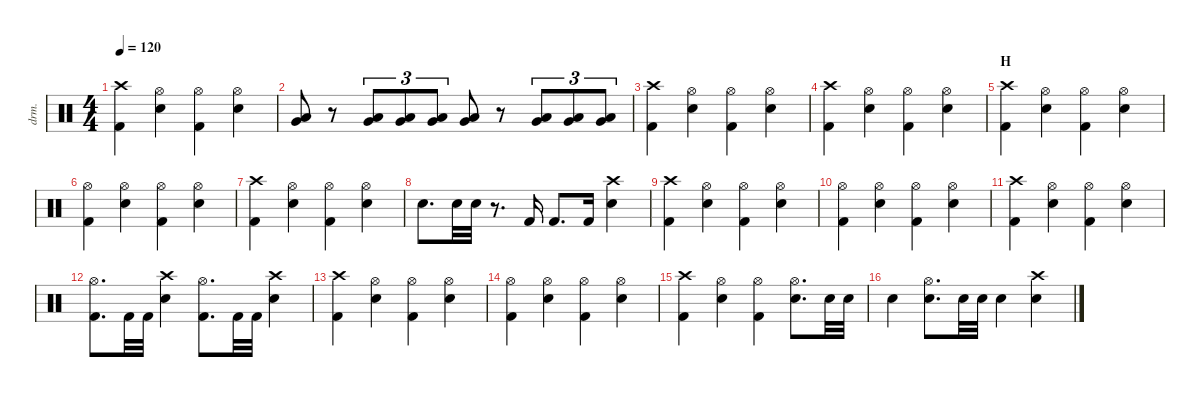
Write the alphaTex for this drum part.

\defaultSystemsLayout 4
\hideDynamics
\bracketExtendMode nobrackets
\track ("Drums" "drm.") {instrument percussion}
\staff {score}
\articulation defaults
\ts (4 4)
\tempo 120
\clef neutral
\ks c
("Crash high (hit)" "Kick (hit) 2").4{dy f} ("Snare (hit) 2" "Hi-Hat (open)").4 ("Hi-Hat (open)" "Kick (hit) 2").4 ("Snare (hit) 2" "Hi-Hat (open)").4 |
("Low Floor Tom (hit)" "Very Low Tom (hit)").8 r.8 ("Low Floor Tom (hit)" "Very Low Tom (hit)").8{tu (3 2)} ("Low Floor Tom (hit)" "Very Low Tom (hit)").8{tu (3 2)} ("Low Floor Tom (hit)" "Very Low Tom (hit)").8{tu (3 2)} ("Low Floor Tom (hit)" "Very Low Tom (hit)").8 r.8 ("Low Floor Tom (hit)" "Very Low Tom (hit)").8{tu (3 2)} ("Low Floor Tom (hit)" "Very Low Tom (hit)").8{tu (3 2)} ("Low Floor Tom (hit)" "Very Low Tom (hit)").8{tu (3 2)} |
("Crash high (hit)" "Kick (hit) 2").4 ("Snare (hit) 2" "Hi-Hat (open)").4 ("Hi-Hat (open)" "Kick (hit) 2").4 ("Snare (hit) 2" "Hi-Hat (open)").4 |
("Crash high (hit)" "Kick (hit) 2").4 ("Snare (hit) 2" "Hi-Hat (open)").4 ("Hi-Hat (open)" "Kick (hit) 2").4 ("Snare (hit) 2" "Hi-Hat (open)").4 |
\section ("" "H")
("Crash high (hit)" "Kick (hit) 2").4 ("Hi-Hat (open)" "Snare (hit) 2").4 ("Hi-Hat (open)" "Kick (hit) 2").4 ("Hi-Hat (open)" "Snare (hit) 2").4 |
("Hi-Hat (open)" "Kick (hit) 2").4 ("Hi-Hat (open)" "Snare (hit) 2").4 ("Hi-Hat (open)" "Kick (hit) 2").4 ("Hi-Hat (open)" "Snare (hit) 2").4 |
("Crash high (hit)" "Kick (hit) 2").4 ("Hi-Hat (open)" "Snare (hit) 2").4 ("Hi-Hat (open)" "Kick (hit) 2").4 ("Hi-Hat (open)" "Snare (hit) 2").4 |
"Snare (hit) 2".8{d} "Snare (hit) 2".32 "Snare (hit) 2".32 r.8{d} "Kick (hit) 2".16 "Kick (hit) 2".8{d} "Kick (hit) 2".16 ("Crash high (hit)" "Snare (hit) 2").4 |
("Crash high (hit)" "Kick (hit) 2").4 ("Hi-Hat (open)" "Snare (hit) 2").4 ("Hi-Hat (open)" "Kick (hit) 2").4 ("Hi-Hat (open)" "Snare (hit) 2").4 |
("Hi-Hat (open)" "Kick (hit) 2").4 ("Hi-Hat (open)" "Snare (hit) 2").4 ("Hi-Hat (open)" "Kick (hit) 2").4 ("Hi-Hat (open)" "Snare (hit) 2").4 |
("Crash high (hit)" "Kick (hit) 2").4 ("Hi-Hat (open)" "Snare (hit) 2").4 ("Hi-Hat (open)" "Kick (hit) 2").4 ("Hi-Hat (open)" "Snare (hit) 2").4 |
("Hi-Hat (open)" "Kick (hit) 2").8{d} "Kick (hit) 2".32 "Kick (hit) 2".32 ("Crash high (hit)" "Snare (hit) 2").4 ("Hi-Hat (open)" "Kick (hit) 2").8{d} "Kick (hit) 2".32 "Kick (hit) 2".32 ("Crash high (hit)" "Snare (hit) 2").4 |
("Crash high (hit)" "Kick (hit) 2").4 ("Hi-Hat (open)" "Snare (hit) 2").4 ("Hi-Hat (open)" "Kick (hit) 2").4 ("Hi-Hat (open)" "Snare (hit) 2").4 |
("Hi-Hat (open)" "Kick (hit) 2").4 ("Hi-Hat (open)" "Snare (hit) 2").4 ("Hi-Hat (open)" "Kick (hit) 2").4 ("Hi-Hat (open)" "Snare (hit) 2").4 |
("Crash high (hit)" "Kick (hit) 2").4 ("Hi-Hat (open)" "Snare (hit) 2").4 ("Hi-Hat (open)" "Kick (hit) 2").4 ("Hi-Hat (open)" "Snare (hit) 2").8{d} "Snare (hit) 2".32 "Snare (hit) 2".32 |
"Snare (hit) 2".4 ("Hi-Hat (open)" "Snare (hit) 2").8{d} "Snare (hit) 2".32 "Snare (hit) 2".32 "Snare (hit) 2".4 ("Crash high (hit)" "Snare (hit) 2").4
